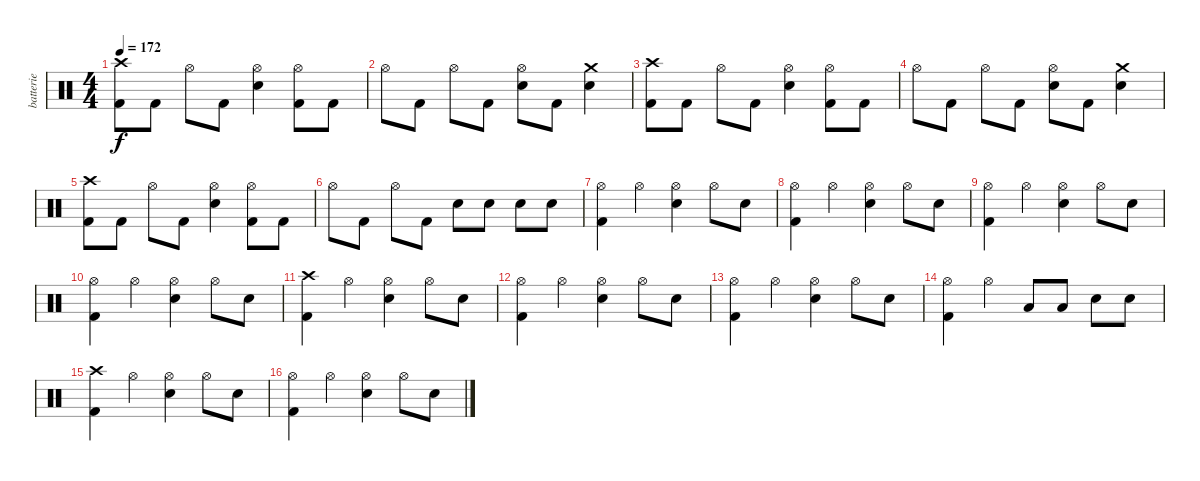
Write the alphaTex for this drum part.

\track ("batterie" "batterie") {instrument percussion}
\staff {score}
\articulation defaults
\ts (4 4)
\tempo 172
\clef neutral
\ks c
("Crash high (hit)" "Kick (hit) 2").8{dy f} "Kick (hit) 2".8 "Hi-Hat (open)".8 "Kick (hit) 2".8 ("Hi-Hat (open)" "Electric Snare (hit)").4 ("Hi-Hat (open)" "Kick (hit) 2").8 "Kick (hit) 2".8 |
"Hi-Hat (open)".8 "Kick (hit) 2".8 "Hi-Hat (open)".8 "Kick (hit) 2".8 ("Hi-Hat (open)" "Electric Snare (hit)").8 "Kick (hit) 2".8 ("Electric Snare (hit)" "Crash medium (hit)").4 |
("Crash high (hit)" "Kick (hit) 2").8 "Kick (hit) 2".8 "Hi-Hat (open)".8 "Kick (hit) 2".8 ("Hi-Hat (open)" "Electric Snare (hit)").4 ("Hi-Hat (open)" "Kick (hit) 2").8 "Kick (hit) 2".8 |
"Hi-Hat (open)".8 "Kick (hit) 2".8 "Hi-Hat (open)".8 "Kick (hit) 2".8 ("Hi-Hat (open)" "Electric Snare (hit)").8 "Kick (hit) 2".8 ("Electric Snare (hit)" "Crash medium (hit)").4 |
("Crash high (hit)" "Kick (hit) 2").8 "Kick (hit) 2".8 "Hi-Hat (open)".8 "Kick (hit) 2".8 ("Hi-Hat (open)" "Electric Snare (hit)").4 ("Hi-Hat (open)" "Kick (hit) 2").8 "Kick (hit) 2".8 |
"Hi-Hat (open)".8 "Kick (hit) 2".8 "Hi-Hat (open)".8 "Kick (hit) 2".8 "Electric Snare (hit)".8 "Electric Snare (hit)".8 "Electric Snare (hit)".8 "Electric Snare (hit)".8 |
("Hi-Hat (open)" "Kick (hit) 2").4 "Hi-Hat (open)".4 ("Electric Snare (hit)" "Hi-Hat (open)").4 "Hi-Hat (open)".8 "Electric Snare (hit)".8 |
("Hi-Hat (open)" "Kick (hit) 2").4 "Hi-Hat (open)".4 ("Electric Snare (hit)" "Hi-Hat (open)").4 "Hi-Hat (open)".8 "Electric Snare (hit)".8 |
("Hi-Hat (open)" "Kick (hit) 2").4 "Hi-Hat (open)".4 ("Electric Snare (hit)" "Hi-Hat (open)").4 "Hi-Hat (open)".8 "Electric Snare (hit)".8 |
("Hi-Hat (open)" "Kick (hit) 2").4 "Hi-Hat (open)".4 ("Electric Snare (hit)" "Hi-Hat (open)").4 "Hi-Hat (open)".8 "Electric Snare (hit)".8 |
("Crash high (hit)" "Kick (hit) 2").4 "Hi-Hat (open)".4 ("Electric Snare (hit)" "Hi-Hat (open)").4 "Hi-Hat (open)".8 "Electric Snare (hit)".8 |
("Hi-Hat (open)" "Kick (hit) 2").4 "Hi-Hat (open)".4 ("Electric Snare (hit)" "Hi-Hat (open)").4 "Hi-Hat (open)".8 "Electric Snare (hit)".8 |
("Hi-Hat (open)" "Kick (hit) 2").4 "Hi-Hat (open)".4 ("Electric Snare (hit)" "Hi-Hat (open)").4 "Hi-Hat (open)".8 "Electric Snare (hit)".8 |
("Hi-Hat (open)" "Kick (hit) 2").4 "Hi-Hat (open)".4 "Low Tom (hit)".8 "Low Tom (hit)".8 "Electric Snare (hit)".8 "Electric Snare (hit)".8 |
("Crash high (hit)" "Kick (hit) 2").4 "Hi-Hat (open)".4 ("Electric Snare (hit)" "Hi-Hat (open)").4 "Hi-Hat (open)".8 "Electric Snare (hit)".8 |
("Hi-Hat (open)" "Kick (hit) 2").4 "Hi-Hat (open)".4 ("Electric Snare (hit)" "Hi-Hat (open)").4 "Hi-Hat (open)".8 "Electric Snare (hit)".8
